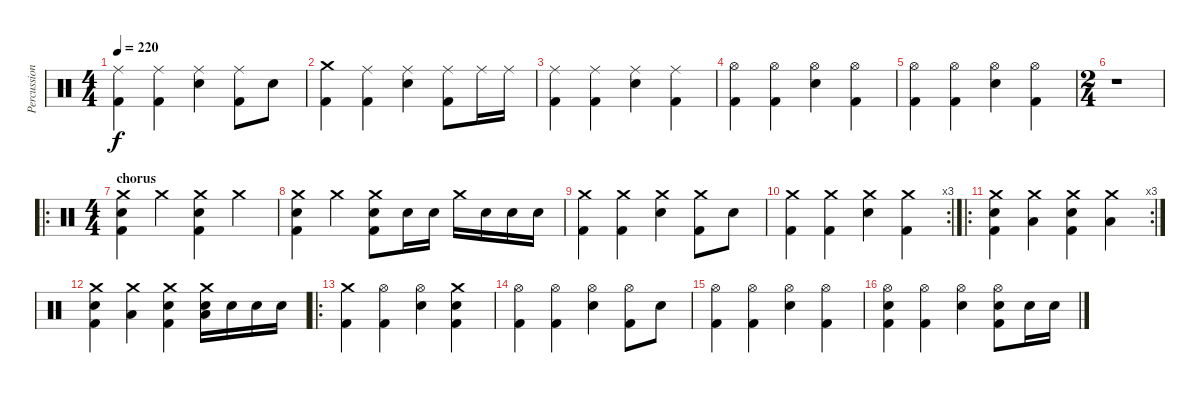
\track ("Percussions" "Percussion") {instrument percussion}
\staff {score}
\articulation defaults
\ts (4 4)
\tempo 220
\clef neutral
\ks c
("Ride (middle)" "Kick (hit) 2").4{dy f} ("Ride (middle)" "Kick (hit) 2").4 ("Snare (hit) 2" "Ride (middle)").4 ("Ride (middle)" "Kick (hit) 2").8 "Snare (hit) 2".8 |
("Crash medium (hit)" "Kick (hit) 2").4 ("Ride (middle)" "Kick (hit) 2").4 ("Snare (hit) 2" "Ride (middle)").4 ("Ride (middle)" "Kick (hit) 2").8 "Ride (middle)".16 "Ride (middle)".16 |
("Ride (middle)" "Kick (hit) 2").4 ("Ride (middle)" "Kick (hit) 2").4 ("Snare (hit) 2" "Ride (middle)").4 ("Ride (middle)" "Kick (hit) 2").4 |
("Hi-Hat (open)" "Kick (hit) 2").4 ("Hi-Hat (open)" "Kick (hit) 2").4 ("Snare (hit) 2" "Hi-Hat (open)").4 ("Hi-Hat (open)" "Kick (hit) 2").4 |
("Hi-Hat (open)" "Kick (hit) 2").4 ("Hi-Hat (open)" "Kick (hit) 2").4 ("Snare (hit) 2" "Hi-Hat (open)").4 ("Hi-Hat (open)" "Kick (hit) 2").4 |
\ts (2 4)
r.1 |
\ro
\ts (4 4)
\section ("" "chorus")
("Snare (hit) 2" "Crash medium (hit)" "Kick (hit) 2").4 "Crash medium (hit)".4 ("Snare (hit) 2" "Crash medium (hit)" "Kick (hit) 2").4 "Crash medium (hit)".4 |
("Snare (hit) 2" "Crash medium (hit)" "Kick (hit) 2").4 "Crash medium (hit)".4 ("Snare (hit) 2" "Crash medium (hit)" "Kick (hit) 2").8 "Snare (hit) 2".16 "Snare (hit) 2".16 "Crash medium (hit)".16 "Snare (hit) 2".16 "Snare (hit) 2".16 "Snare (hit) 2".16 |
("Crash medium (hit)" "Kick (hit) 2").4 ("Crash medium (hit)" "Kick (hit) 2").4 ("Snare (hit) 2" "Crash medium (hit)").4 ("Crash medium (hit)" "Kick (hit) 2").8 "Snare (hit) 2".8 |
\rc 3
("Crash medium (hit)" "Kick (hit) 2").4 ("Crash medium (hit)" "Kick (hit) 2").4 ("Snare (hit) 2" "Crash medium (hit)").4 ("Crash medium (hit)" "Kick (hit) 2").4 |
\ro
\rc 3
("Snare (hit) 2" "Crash medium (hit)" "Kick (hit) 2").4 ("Low Tom (hit)" "Crash medium (hit)").4 ("Snare (hit) 2" "Crash medium (hit)" "Kick (hit) 2").4 ("Low Tom (hit)" "Crash medium (hit)").4 |
("Snare (hit) 2" "Crash medium (hit)" "Kick (hit) 2").4 ("Low Tom (hit)" "Crash medium (hit)").4 ("Snare (hit) 2" "Crash medium (hit)" "Kick (hit) 2").4 ("Snare (hit) 2" "Low Tom (hit)" "Crash medium (hit)").16 "Snare (hit) 2".16 "Snare (hit) 2".16 "Snare (hit) 2".16 |
\ro
("Crash medium (hit)" "Kick (hit) 2").4 ("Hi-Hat (open)" "Kick (hit) 2").4 ("Snare (hit) 2" "Hi-Hat (open)").4 ("Snare (hit) 2" "Crash medium (hit)" "Kick (hit) 2").4 |
("Hi-Hat (open)" "Kick (hit) 2").4 ("Hi-Hat (open)" "Kick (hit) 2").4 ("Snare (hit) 2" "Hi-Hat (open)").4 ("Hi-Hat (open)" "Kick (hit) 2").8 "Snare (hit) 2".8 |
("Hi-Hat (open)" "Kick (hit) 2").4 ("Hi-Hat (open)" "Kick (hit) 2").4 ("Snare (hit) 2" "Hi-Hat (open)").4 ("Hi-Hat (open)" "Kick (hit) 2").4 |
("Snare (hit) 2" "Hi-Hat (open)" "Kick (hit) 2").4 ("Hi-Hat (open)" "Kick (hit) 2").4 ("Snare (hit) 2" "Hi-Hat (open)").4 ("Snare (hit) 2" "Hi-Hat (open)" "Kick (hit) 2").8 "Snare (hit) 2".16 "Snare (hit) 2".16
